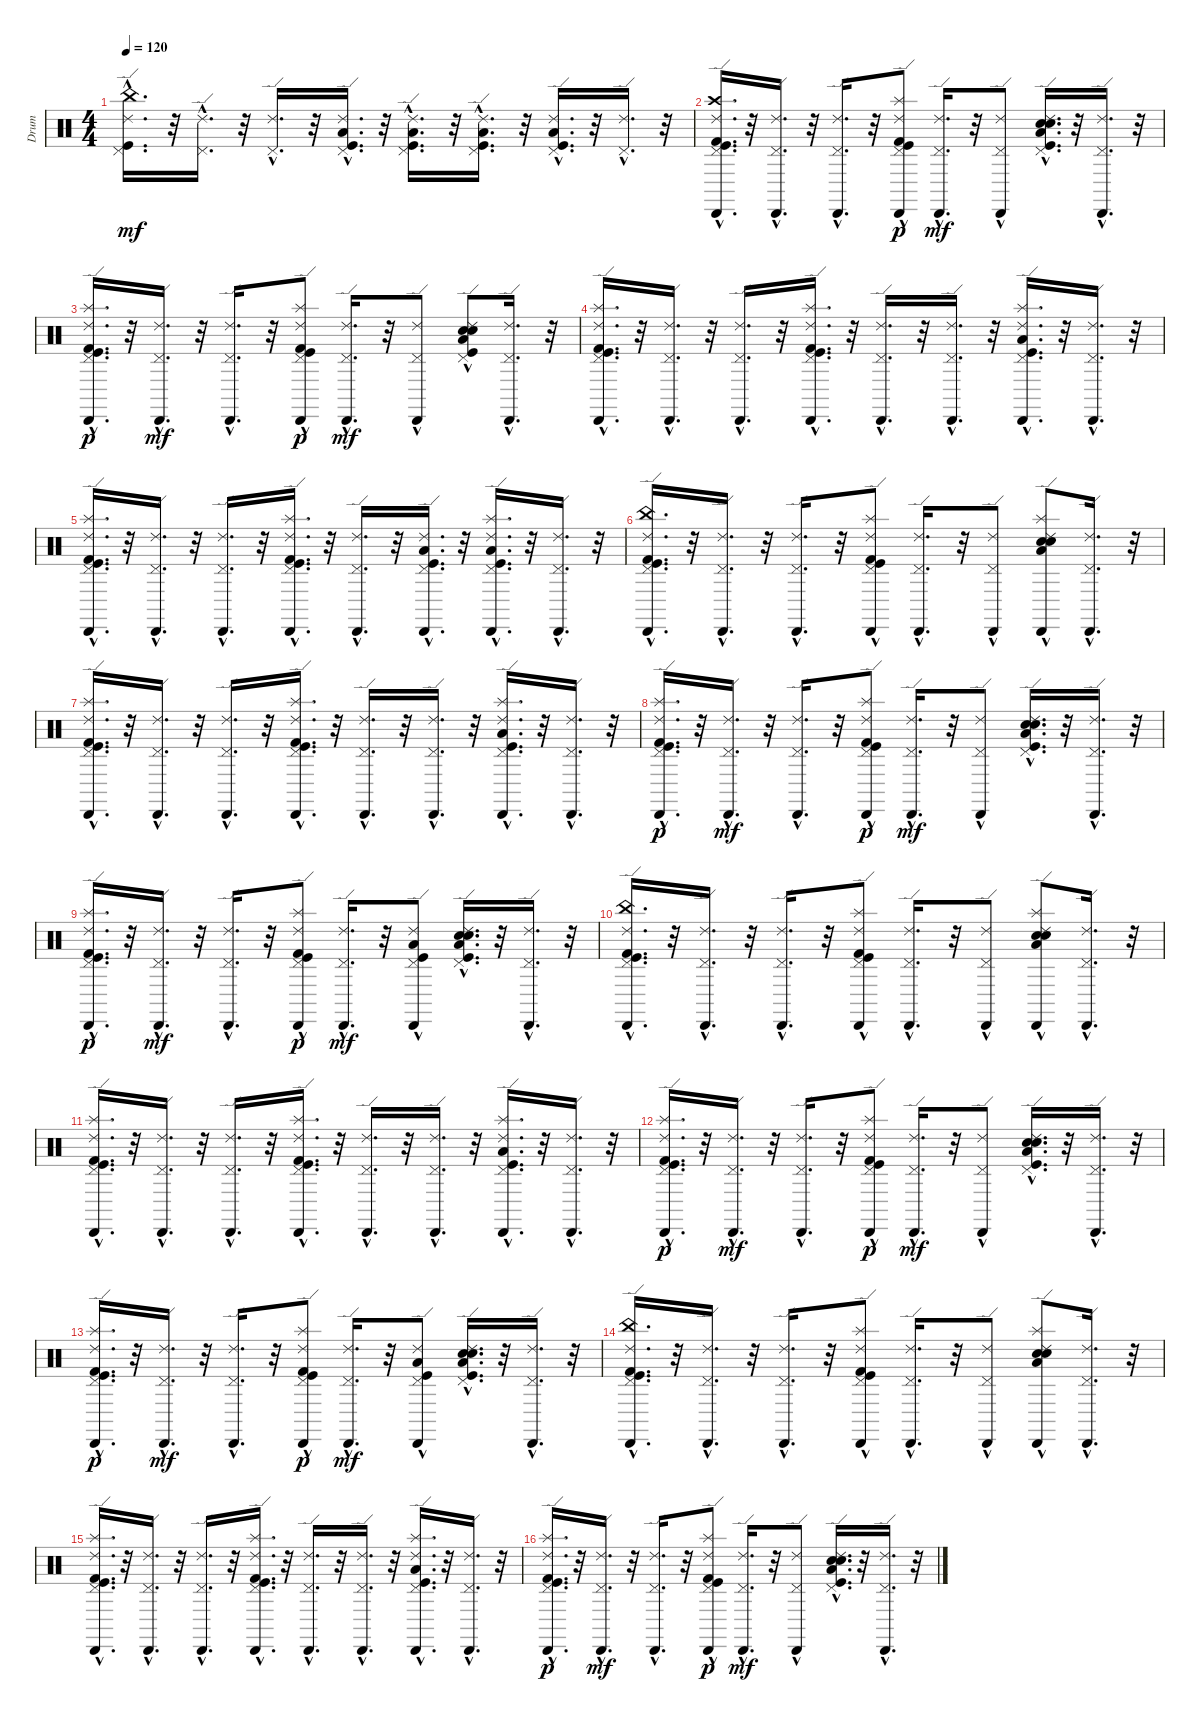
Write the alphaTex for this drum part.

\track ("Drum" "Drum") {instrument percussion}
\staff {score}
\articulation defaults
\ts (4 4)
\tempo 120
\clef neutral
\ks c
("Ride (edge) 2"{hac} "Kick (hit)"{hac} "Pedal Hi-Hat (hit)"{hac} "China (hit)"{hac}).16{d dy mf} r.32 ("Ride (edge) 2"{hac} "Pedal Hi-Hat (hit)"{hac}).16{d} r.32 ("Ride (edge) 2"{hac} "Pedal Hi-Hat (hit)"{hac}).16{d} r.32 ("Ride (edge) 2"{hac} "Kick (hit)"{hac} "Pedal Hi-Hat (hit)"{hac} "Low Tom (hit)"{hac}).16{d} r.32 ("Ride (edge) 2"{hac} "Pedal Hi-Hat (hit)"{hac} "Low Tom (hit)"{hac} "Kick (hit)"{hac}).16{d} r.32 ("Ride (edge) 2"{hac} "Pedal Hi-Hat (hit)"{hac} "Kick (hit)"{hac} "Low Tom (hit)"{hac}).16{d} r.32 ("Ride (edge) 2"{hac} "Low Tom (hit)"{hac} "Kick (hit)"{hac} "Pedal Hi-Hat (hit)"{hac}).16{d} r.32 ("Ride (edge) 2"{hac} "Pedal Hi-Hat (hit)"{hac}).16{d} r.32 |
("Pedal Hi-Hat (hit)"{hac} "Kick (hit)"{hac} "Ride (edge) 2"{hac} "Crash high (hit)"{hac} "Cabasa (hit)"{hac} "Kick (hit) 2"{hac}).16{d} r.32 ("Pedal Hi-Hat (hit)"{hac} "Ride (edge) 2"{hac} "Cabasa (hit)"{hac}).16{d} r.32 ("Pedal Hi-Hat (hit)"{hac} "Ride (edge) 2"{hac} "Cabasa (hit)"{hac}).16{d} r.32 ("Pedal Hi-Hat (hit)"{hac} "Kick (hit)"{hac} "Ride (edge) 2"{hac} "Cabasa (hit)"{hac} "Kick (hit) 2"{hac} "Splash (hit)"{hac}).8{dy p} ("Pedal Hi-Hat (hit)"{hac} "Ride (edge) 2"{hac} "Cabasa (hit)"{hac}).16{d dy mf} r.32 ("Pedal Hi-Hat (hit)"{hac} "Ride (edge) 2"{hac} "Cabasa (hit)"{hac}).8 ("Pedal Hi-Hat (hit)"{hac} "Kick (hit)"{hac} "Low Tom (hit)"{hac} "Ride (edge) 2"{hac} "Snare (hit) 2"{hac} "Electric Snare (hit)"{hac}).16{d} r.32 ("Pedal Hi-Hat (hit)"{hac} "Ride (edge) 2"{hac} "Cabasa (hit)"{hac}).16{d} r.32 |
("Ride (edge) 2"{hac} "Kick (hit)"{hac} "Pedal Hi-Hat (hit)"{hac} "Cabasa (hit)"{hac} "Kick (hit) 2"{hac} "Splash (hit)"{hac}).16{d dy p} r.32 ("Ride (edge) 2"{hac} "Pedal Hi-Hat (hit)"{hac} "Cabasa (hit)"{hac}).16{d dy mf} r.32 ("Ride (edge) 2"{hac} "Pedal Hi-Hat (hit)"{hac} "Cabasa (hit)"{hac}).16{d} r.32 ("Ride (edge) 2"{hac} "Kick (hit)"{hac} "Pedal Hi-Hat (hit)"{hac} "Cabasa (hit)"{hac} "Kick (hit) 2"{hac} "Splash (hit)"{hac}).8{dy p} ("Ride (edge) 2"{hac} "Pedal Hi-Hat (hit)"{hac} "Cabasa (hit)"{hac}).16{d dy mf} r.32 ("Ride (edge) 2"{hac} "Pedal Hi-Hat (hit)"{hac} "Cabasa (hit)"{hac}).8 ("Electric Snare (hit)" "Snare (hit) 2" "Ride (edge) 2"{hac} "Low Tom (hit)"{hac} "Kick (hit)"{hac} "Pedal Hi-Hat (hit)"{hac}).8 ("Ride (edge) 2"{hac} "Pedal Hi-Hat (hit)"{hac} "Cabasa (hit)"{hac}).16{d} r.32 |
("Splash (hit)"{hac} "Kick (hit) 2"{hac} "Cabasa (hit)"{hac} "Pedal Hi-Hat (hit)"{hac} "Kick (hit)"{hac} "Ride (edge) 2"{hac}).16{d} r.32 ("Cabasa (hit)"{hac} "Pedal Hi-Hat (hit)"{hac} "Ride (edge) 2"{hac}).16{d} r.32 ("Cabasa (hit)"{hac} "Pedal Hi-Hat (hit)"{hac} "Ride (edge) 2"{hac}).16{d} r.32 ("Splash (hit)"{hac} "Kick (hit) 2"{hac} "Cabasa (hit)"{hac} "Pedal Hi-Hat (hit)"{hac} "Kick (hit)"{hac} "Ride (edge) 2"{hac}).16{d} r.32 ("Cabasa (hit)"{hac} "Pedal Hi-Hat (hit)"{hac} "Ride (edge) 2"{hac}).16{d} r.32 ("Cabasa (hit)"{hac} "Pedal Hi-Hat (hit)"{hac} "Ride (edge) 2"{hac}).16{d} r.32 ("Splash (hit)"{hac} "Cabasa (hit)"{hac} "Pedal Hi-Hat (hit)"{hac} "Kick (hit)"{hac} "Low Tom (hit)"{hac} "Ride (edge) 2"{hac}).16{d} r.32 ("Cabasa (hit)"{hac} "Pedal Hi-Hat (hit)"{hac} "Ride (edge) 2"{hac}).16{d} r.32 |
("Splash (hit)"{hac} "Kick (hit) 2"{hac} "Cabasa (hit)"{hac} "Pedal Hi-Hat (hit)"{hac} "Kick (hit)"{hac} "Ride (edge) 2"{hac}).16{d} r.32 ("Cabasa (hit)"{hac} "Pedal Hi-Hat (hit)"{hac} "Ride (edge) 2"{hac}).16{d} r.32 ("Cabasa (hit)"{hac} "Pedal Hi-Hat (hit)"{hac} "Ride (edge) 2"{hac}).16{d} r.32 ("Splash (hit)"{hac} "Kick (hit) 2"{hac} "Cabasa (hit)"{hac} "Pedal Hi-Hat (hit)"{hac} "Kick (hit)"{hac} "Ride (edge) 2"{hac}).16{d} r.32 ("Cabasa (hit)"{hac} "Pedal Hi-Hat (hit)"{hac} "Ride (edge) 2"{hac}).16{d} r.32 ("Cabasa (hit)"{hac} "Pedal Hi-Hat (hit)"{hac} "Ride (edge) 2"{hac} "Kick (hit)"{hac} "Low Tom (hit)"{hac}).16{d} r.32 ("Splash (hit)"{hac} "Cabasa (hit)"{hac} "Pedal Hi-Hat (hit)"{hac} "Kick (hit)"{hac} "Low Tom (hit)"{hac} "Ride (edge) 2"{hac}).16{d} r.32 ("Cabasa (hit)"{hac} "Pedal Hi-Hat (hit)"{hac} "Ride (edge) 2"{hac}).16{d} r.32 |
("Kick (hit) 2"{hac} "Cabasa (hit)"{hac} "Ride (edge) 2"{hac} "Kick (hit)"{hac} "Pedal Hi-Hat (hit)"{hac} "China (hit)"{hac}).16{d} r.32 ("Cabasa (hit)"{hac} "Ride (edge) 2"{hac} "Pedal Hi-Hat (hit)"{hac}).16{d} r.32 ("Cabasa (hit)"{hac} "Ride (edge) 2"{hac} "Pedal Hi-Hat (hit)"{hac}).16{d} r.32 ("Splash (hit)"{hac} "Kick (hit) 2"{hac} "Cabasa (hit)"{hac} "Ride (edge) 2"{hac} "Kick (hit)"{hac} "Pedal Hi-Hat (hit)"{hac}).8 ("Cabasa (hit)"{hac} "Ride (edge) 2"{hac} "Pedal Hi-Hat (hit)"{hac}).16{d} r.32 ("Cabasa (hit)"{hac} "Ride (edge) 2"{hac} "Pedal Hi-Hat (hit)"{hac}).8 ("Splash (hit)"{hac} "Cabasa (hit)"{hac} "Electric Snare (hit)" "Snare (hit) 2" "Ride (edge) 2"{hac} "Low Tom (hit)"{hac}).8 ("Cabasa (hit)"{hac} "Ride (edge) 2"{hac} "Pedal Hi-Hat (hit)"{hac}).16{d} r.32 |
("Splash (hit)"{hac} "Kick (hit) 2"{hac} "Cabasa (hit)"{hac} "Pedal Hi-Hat (hit)"{hac} "Kick (hit)"{hac} "Ride (edge) 2"{hac}).16{d} r.32 ("Cabasa (hit)"{hac} "Pedal Hi-Hat (hit)"{hac} "Ride (edge) 2"{hac}).16{d} r.32 ("Cabasa (hit)"{hac} "Pedal Hi-Hat (hit)"{hac} "Ride (edge) 2"{hac}).16{d} r.32 ("Splash (hit)"{hac} "Kick (hit) 2"{hac} "Cabasa (hit)"{hac} "Pedal Hi-Hat (hit)"{hac} "Kick (hit)"{hac} "Ride (edge) 2"{hac}).16{d} r.32 ("Cabasa (hit)"{hac} "Pedal Hi-Hat (hit)"{hac} "Ride (edge) 2"{hac}).16{d} r.32 ("Cabasa (hit)"{hac} "Pedal Hi-Hat (hit)"{hac} "Ride (edge) 2"{hac}).16{d} r.32 ("Splash (hit)"{hac} "Cabasa (hit)"{hac} "Pedal Hi-Hat (hit)"{hac} "Kick (hit)"{hac} "Low Tom (hit)"{hac} "Ride (edge) 2"{hac}).16{d} r.32 ("Cabasa (hit)"{hac} "Pedal Hi-Hat (hit)"{hac} "Ride (edge) 2"{hac}).16{d} r.32 |
("Ride (edge) 2"{hac} "Kick (hit)"{hac} "Pedal Hi-Hat (hit)"{hac} "Cabasa (hit)"{hac} "Kick (hit) 2"{hac} "Splash (hit)"{hac}).16{d dy p} r.32 ("Ride (edge) 2"{hac} "Pedal Hi-Hat (hit)"{hac} "Cabasa (hit)"{hac}).16{d dy mf} r.32 ("Ride (edge) 2"{hac} "Pedal Hi-Hat (hit)"{hac} "Cabasa (hit)"{hac}).16{d} r.32 ("Ride (edge) 2"{hac} "Kick (hit)"{hac} "Pedal Hi-Hat (hit)"{hac} "Cabasa (hit)"{hac} "Kick (hit) 2"{hac} "Splash (hit)"{hac}).8{dy p} ("Ride (edge) 2"{hac} "Pedal Hi-Hat (hit)"{hac} "Cabasa (hit)"{hac}).16{d dy mf} r.32 ("Ride (edge) 2"{hac} "Pedal Hi-Hat (hit)"{hac} "Cabasa (hit)"{hac}).8 ("Electric Snare (hit)"{hac} "Snare (hit) 2"{hac} "Ride (edge) 2"{hac} "Low Tom (hit)"{hac} "Kick (hit)"{hac} "Pedal Hi-Hat (hit)"{hac}).16{d} r.32 ("Ride (edge) 2"{hac} "Pedal Hi-Hat (hit)"{hac} "Cabasa (hit)"{hac}).16{d} r.32 |
("Ride (edge) 2"{hac} "Kick (hit)"{hac} "Pedal Hi-Hat (hit)"{hac} "Cabasa (hit)"{hac} "Kick (hit) 2"{hac} "Splash (hit)"{hac}).16{d dy p} r.32 ("Ride (edge) 2"{hac} "Pedal Hi-Hat (hit)"{hac} "Cabasa (hit)"{hac}).16{d dy mf} r.32 ("Ride (edge) 2"{hac} "Pedal Hi-Hat (hit)"{hac} "Cabasa (hit)"{hac}).16{d} r.32 ("Ride (edge) 2"{hac} "Kick (hit)"{hac} "Pedal Hi-Hat (hit)"{hac} "Cabasa (hit)"{hac} "Kick (hit) 2"{hac} "Splash (hit)"{hac}).8{dy p} ("Ride (edge) 2"{hac} "Pedal Hi-Hat (hit)"{hac} "Cabasa (hit)"{hac}).16{d dy mf} r.32 ("Low Tom (hit)"{hac} "Kick (hit)"{hac} "Ride (edge) 2"{hac} "Pedal Hi-Hat (hit)"{hac} "Cabasa (hit)"{hac}).8 ("Electric Snare (hit)"{hac} "Snare (hit) 2"{hac} "Ride (edge) 2"{hac} "Low Tom (hit)"{hac} "Kick (hit)"{hac} "Pedal Hi-Hat (hit)"{hac}).16{d} r.32 ("Ride (edge) 2"{hac} "Pedal Hi-Hat (hit)"{hac} "Cabasa (hit)"{hac}).16{d} r.32 |
("Kick (hit) 2"{hac} "Cabasa (hit)"{hac} "Ride (edge) 2"{hac} "Kick (hit)"{hac} "Pedal Hi-Hat (hit)"{hac} "China (hit)"{hac}).16{d} r.32 ("Cabasa (hit)"{hac} "Ride (edge) 2"{hac} "Pedal Hi-Hat (hit)"{hac}).16{d} r.32 ("Cabasa (hit)"{hac} "Ride (edge) 2"{hac} "Pedal Hi-Hat (hit)"{hac}).16{d} r.32 ("Splash (hit)"{hac} "Kick (hit) 2"{hac} "Cabasa (hit)"{hac} "Ride (edge) 2"{hac} "Kick (hit)"{hac} "Pedal Hi-Hat (hit)"{hac}).8 ("Cabasa (hit)"{hac} "Ride (edge) 2"{hac} "Pedal Hi-Hat (hit)"{hac}).16{d} r.32 ("Cabasa (hit)"{hac} "Ride (edge) 2"{hac} "Pedal Hi-Hat (hit)"{hac}).8 ("Splash (hit)"{hac} "Cabasa (hit)"{hac} "Electric Snare (hit)" "Snare (hit) 2" "Ride (edge) 2"{hac} "Low Tom (hit)"{hac}).8 ("Cabasa (hit)"{hac} "Ride (edge) 2"{hac} "Pedal Hi-Hat (hit)"{hac}).16{d} r.32 |
("Splash (hit)"{hac} "Kick (hit) 2"{hac} "Cabasa (hit)"{hac} "Pedal Hi-Hat (hit)"{hac} "Kick (hit)"{hac} "Ride (edge) 2"{hac}).16{d} r.32 ("Cabasa (hit)"{hac} "Pedal Hi-Hat (hit)"{hac} "Ride (edge) 2"{hac}).16{d} r.32 ("Cabasa (hit)"{hac} "Pedal Hi-Hat (hit)"{hac} "Ride (edge) 2"{hac}).16{d} r.32 ("Splash (hit)"{hac} "Kick (hit) 2"{hac} "Cabasa (hit)"{hac} "Pedal Hi-Hat (hit)"{hac} "Kick (hit)"{hac} "Ride (edge) 2"{hac}).16{d} r.32 ("Cabasa (hit)"{hac} "Pedal Hi-Hat (hit)"{hac} "Ride (edge) 2"{hac}).16{d} r.32 ("Cabasa (hit)"{hac} "Pedal Hi-Hat (hit)"{hac} "Ride (edge) 2"{hac}).16{d} r.32 ("Splash (hit)"{hac} "Cabasa (hit)"{hac} "Pedal Hi-Hat (hit)"{hac} "Kick (hit)"{hac} "Low Tom (hit)"{hac} "Ride (edge) 2"{hac}).16{d} r.32 ("Cabasa (hit)"{hac} "Pedal Hi-Hat (hit)"{hac} "Ride (edge) 2"{hac}).16{d} r.32 |
("Ride (edge) 2"{hac} "Kick (hit)"{hac} "Pedal Hi-Hat (hit)"{hac} "Cabasa (hit)"{hac} "Kick (hit) 2"{hac} "Splash (hit)"{hac}).16{d dy p} r.32 ("Ride (edge) 2"{hac} "Pedal Hi-Hat (hit)"{hac} "Cabasa (hit)"{hac}).16{d dy mf} r.32 ("Ride (edge) 2"{hac} "Pedal Hi-Hat (hit)"{hac} "Cabasa (hit)"{hac}).16{d} r.32 ("Ride (edge) 2"{hac} "Kick (hit)"{hac} "Pedal Hi-Hat (hit)"{hac} "Cabasa (hit)"{hac} "Kick (hit) 2"{hac} "Splash (hit)"{hac}).8{dy p} ("Ride (edge) 2"{hac} "Pedal Hi-Hat (hit)"{hac} "Cabasa (hit)"{hac}).16{d dy mf} r.32 ("Ride (edge) 2"{hac} "Pedal Hi-Hat (hit)"{hac} "Cabasa (hit)"{hac}).8 ("Electric Snare (hit)"{hac} "Snare (hit) 2"{hac} "Ride (edge) 2"{hac} "Low Tom (hit)"{hac} "Kick (hit)"{hac} "Pedal Hi-Hat (hit)"{hac}).16{d} r.32 ("Ride (edge) 2"{hac} "Pedal Hi-Hat (hit)"{hac} "Cabasa (hit)"{hac}).16{d} r.32 |
("Ride (edge) 2"{hac} "Kick (hit)"{hac} "Pedal Hi-Hat (hit)"{hac} "Cabasa (hit)"{hac} "Kick (hit) 2"{hac} "Splash (hit)"{hac}).16{d dy p} r.32 ("Ride (edge) 2"{hac} "Pedal Hi-Hat (hit)"{hac} "Cabasa (hit)"{hac}).16{d dy mf} r.32 ("Ride (edge) 2"{hac} "Pedal Hi-Hat (hit)"{hac} "Cabasa (hit)"{hac}).16{d} r.32 ("Ride (edge) 2"{hac} "Kick (hit)"{hac} "Pedal Hi-Hat (hit)"{hac} "Cabasa (hit)"{hac} "Kick (hit) 2"{hac} "Splash (hit)"{hac}).8{dy p} ("Ride (edge) 2"{hac} "Pedal Hi-Hat (hit)"{hac} "Cabasa (hit)"{hac}).16{d dy mf} r.32 ("Low Tom (hit)"{hac} "Kick (hit)"{hac} "Ride (edge) 2"{hac} "Pedal Hi-Hat (hit)"{hac} "Cabasa (hit)"{hac}).8 ("Electric Snare (hit)"{hac} "Snare (hit) 2"{hac} "Ride (edge) 2"{hac} "Low Tom (hit)"{hac} "Kick (hit)"{hac} "Pedal Hi-Hat (hit)"{hac}).16{d} r.32 ("Ride (edge) 2"{hac} "Pedal Hi-Hat (hit)"{hac} "Cabasa (hit)"{hac}).16{d} r.32 |
("Kick (hit) 2"{hac} "Cabasa (hit)"{hac} "China (hit)"{hac} "Ride (edge) 2"{hac} "Kick (hit)"{hac} "Pedal Hi-Hat (hit)"{hac}).16{d} r.32 ("Cabasa (hit)"{hac} "Ride (edge) 2"{hac} "Pedal Hi-Hat (hit)"{hac}).16{d} r.32 ("Cabasa (hit)"{hac} "Ride (edge) 2"{hac} "Pedal Hi-Hat (hit)"{hac}).16{d} r.32 ("Splash (hit)"{hac} "Kick (hit) 2"{hac} "Cabasa (hit)"{hac} "Ride (edge) 2"{hac} "Kick (hit)"{hac} "Pedal Hi-Hat (hit)"{hac}).8 ("Cabasa (hit)"{hac} "Ride (edge) 2"{hac} "Pedal Hi-Hat (hit)"{hac}).16{d} r.32 ("Cabasa (hit)"{hac} "Ride (edge) 2"{hac} "Pedal Hi-Hat (hit)"{hac}).8 ("Splash (hit)"{hac} "Cabasa (hit)"{hac} "Electric Snare (hit)" "Snare (hit) 2" "Ride (edge) 2"{hac} "Low Tom (hit)"{hac}).8 ("Cabasa (hit)"{hac} "Ride (edge) 2"{hac} "Pedal Hi-Hat (hit)"{hac}).16{d} r.32 |
("Splash (hit)"{hac} "Kick (hit) 2"{hac} "Cabasa (hit)"{hac} "Pedal Hi-Hat (hit)"{hac} "Kick (hit)"{hac} "Ride (edge) 2"{hac}).16{d} r.32 ("Cabasa (hit)"{hac} "Pedal Hi-Hat (hit)"{hac} "Ride (edge) 2"{hac}).16{d} r.32 ("Cabasa (hit)"{hac} "Pedal Hi-Hat (hit)"{hac} "Ride (edge) 2"{hac}).16{d} r.32 ("Splash (hit)"{hac} "Kick (hit) 2"{hac} "Cabasa (hit)"{hac} "Pedal Hi-Hat (hit)"{hac} "Kick (hit)"{hac} "Ride (edge) 2"{hac}).16{d} r.32 ("Cabasa (hit)"{hac} "Pedal Hi-Hat (hit)"{hac} "Ride (edge) 2"{hac}).16{d} r.32 ("Cabasa (hit)"{hac} "Pedal Hi-Hat (hit)"{hac} "Ride (edge) 2"{hac}).16{d} r.32 ("Splash (hit)"{hac} "Cabasa (hit)"{hac} "Pedal Hi-Hat (hit)"{hac} "Kick (hit)"{hac} "Low Tom (hit)"{hac} "Ride (edge) 2"{hac}).16{d} r.32 ("Cabasa (hit)"{hac} "Pedal Hi-Hat (hit)"{hac} "Ride (edge) 2"{hac}).16{d} r.32 |
("Ride (edge) 2"{hac} "Kick (hit)"{hac} "Pedal Hi-Hat (hit)"{hac} "Cabasa (hit)"{hac} "Kick (hit) 2"{hac} "Splash (hit)"{hac}).16{d dy p} r.32 ("Ride (edge) 2"{hac} "Pedal Hi-Hat (hit)"{hac} "Cabasa (hit)"{hac}).16{d dy mf} r.32 ("Ride (edge) 2"{hac} "Pedal Hi-Hat (hit)"{hac} "Cabasa (hit)"{hac}).16{d} r.32 ("Ride (edge) 2"{hac} "Kick (hit)"{hac} "Pedal Hi-Hat (hit)"{hac} "Cabasa (hit)"{hac} "Kick (hit) 2"{hac} "Splash (hit)"{hac}).8{dy p} ("Ride (edge) 2"{hac} "Pedal Hi-Hat (hit)"{hac} "Cabasa (hit)"{hac}).16{d dy mf} r.32 ("Ride (edge) 2"{hac} "Pedal Hi-Hat (hit)"{hac} "Cabasa (hit)"{hac}).8 ("Electric Snare (hit)"{hac} "Snare (hit) 2"{hac} "Ride (edge) 2"{hac} "Low Tom (hit)"{hac} "Kick (hit)"{hac} "Pedal Hi-Hat (hit)"{hac}).16{d} r.32 ("Ride (edge) 2"{hac} "Pedal Hi-Hat (hit)"{hac} "Cabasa (hit)"{hac}).16{d} r.32
